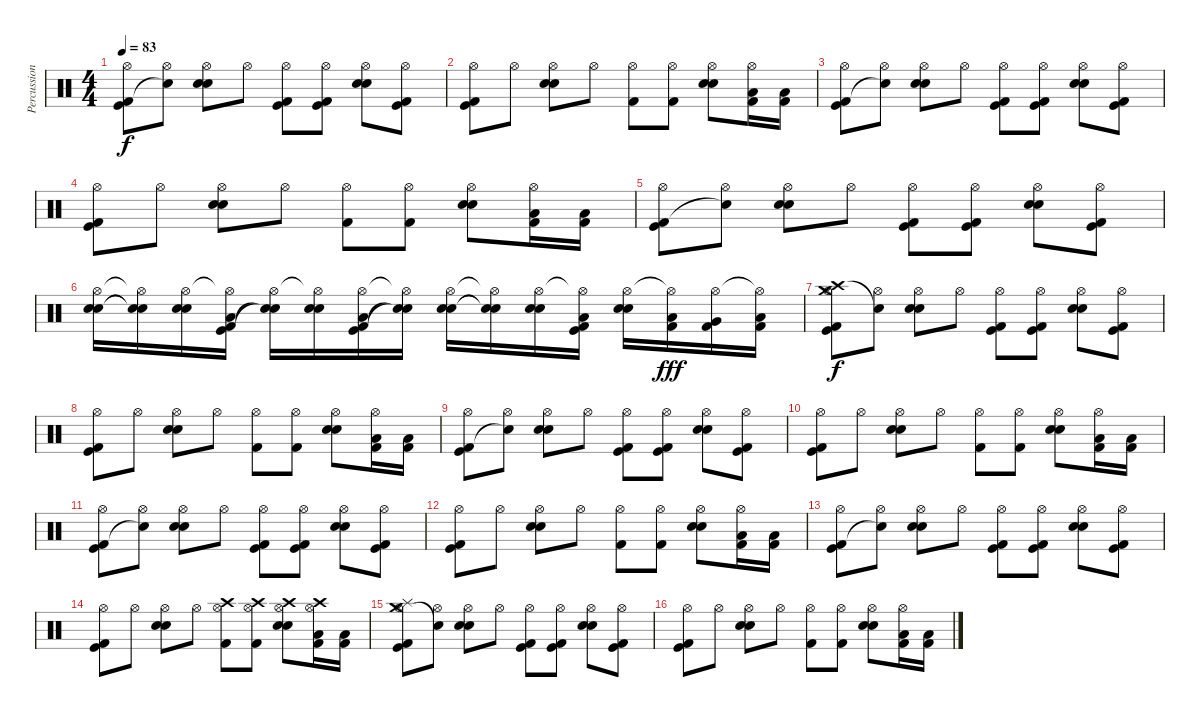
\track ("Percussions" "Percussion") {instrument percussion}
\staff {score}
\articulation defaults
\ts (4 4)
\tempo 83
\clef neutral
\ks c
("Hi-Hat (open)" "Kick (hit) 2" "Kick (hit)").8{dy f} ("Hi-Hat (open)" "Electric Snare (hit)"{t}).8 ("Hi-Hat (open)" "Electric Snare (hit)" "Snare (hit) 2").8 "Hi-Hat (open)".8 ("Hi-Hat (open)" "Kick (hit) 2" "Kick (hit)").8 ("Hi-Hat (open)" "Kick (hit) 2" "Kick (hit)").8 ("Hi-Hat (open)" "Electric Snare (hit)" "Snare (hit) 2").8 ("Hi-Hat (open)" "Kick (hit) 2" "Kick (hit)").8 |
("Hi-Hat (open)" "Kick (hit) 2" "Kick (hit)").8 "Hi-Hat (open)".8 ("Hi-Hat (open)" "Electric Snare (hit)" "Snare (hit) 2").8 "Hi-Hat (open)".8 ("Hi-Hat (open)" "Kick (hit) 2").8 ("Hi-Hat (open)" "Kick (hit) 2").8 ("Hi-Hat (open)" "Electric Snare (hit)" "Snare (hit) 2").8 ("Hi-Hat (open)" "Low Tom (hit)" "Kick (hit) 2").16 ("Low Floor Tom (hit)" "Kick (hit) 2").16 |
("Hi-Hat (open)" "Kick (hit) 2" "Kick (hit)").8 ("Hi-Hat (open)" "Electric Snare (hit)"{t}).8 ("Hi-Hat (open)" "Electric Snare (hit)" "Snare (hit) 2").8 "Hi-Hat (open)".8 ("Hi-Hat (open)" "Kick (hit) 2" "Kick (hit)").8 ("Hi-Hat (open)" "Kick (hit) 2" "Kick (hit)").8 ("Hi-Hat (open)" "Electric Snare (hit)" "Snare (hit) 2").8 ("Hi-Hat (open)" "Kick (hit) 2" "Kick (hit)").8 |
("Hi-Hat (open)" "Kick (hit) 2" "Kick (hit)").8 "Hi-Hat (open)".8 ("Hi-Hat (open)" "Electric Snare (hit)" "Snare (hit) 2").8 "Hi-Hat (open)".8 ("Hi-Hat (open)" "Kick (hit) 2").8 ("Hi-Hat (open)" "Kick (hit) 2").8 ("Hi-Hat (open)" "Electric Snare (hit)" "Snare (hit) 2").8 ("Hi-Hat (open)" "Low Tom (hit)" "Kick (hit) 2").16 ("Low Floor Tom (hit)" "Kick (hit) 2").16 |
("Hi-Hat (open)" "Kick (hit) 2" "Kick (hit)").8 ("Hi-Hat (open)" "Electric Snare (hit)"{t}).8 ("Hi-Hat (open)" "Electric Snare (hit)" "Snare (hit) 2").8 "Hi-Hat (open)".8 ("Hi-Hat (open)" "Kick (hit) 2" "Kick (hit)").8 ("Hi-Hat (open)" "Kick (hit) 2" "Kick (hit)").8 ("Hi-Hat (open)" "Electric Snare (hit)" "Snare (hit) 2").8 ("Hi-Hat (open)" "Kick (hit) 2" "Kick (hit)").8 |
("Hi-Hat (open)" "Electric Snare (hit)" "Snare (hit) 2").16 ("Hi-Hat (open)"{t} "Electric Snare (hit)"{t} "Snare (hit) 2"{t}).16 ("Hi-Hat (open)" "Electric Snare (hit)" "Snare (hit) 2").16 ("Hi-Hat (open)"{t} "Kick (hit) 2" "Kick (hit)" "Low Floor Tom (hit)").16 ("Hi-Hat (open)" "Electric Snare (hit)"{t} "Snare (hit) 2"{t}).16 ("Hi-Hat (open)"{t} "Electric Snare (hit)" "Snare (hit) 2").16 ("Hi-Hat (open)" "Kick (hit) 2" "Kick (hit)" "Low Floor Tom (hit)").16 ("Hi-Hat (open)"{t} "Electric Snare (hit)"{t} "Snare (hit) 2"{t}).16 ("Hi-Hat (open)" "Electric Snare (hit)" "Snare (hit) 2").16 ("Hi-Hat (open)"{t} "Electric Snare (hit)"{t} "Snare (hit) 2"{t}).16 ("Hi-Hat (open)" "Electric Snare (hit)" "Snare (hit) 2").16 ("Hi-Hat (open)"{t} "Kick (hit) 2" "Kick (hit)" "Low Floor Tom (hit)").16 ("Hi-Hat (open)" "Electric Snare (hit)" "Snare (hit) 2").16 ("Hi-Hat (open)"{t} "Low Tom (hit)" "Kick (hit) 2").16{dy fff} ("Hi-Hat (open)" "Very Low Tom (hit)" "Kick (hit) 2").16 ("Hi-Hat (open)"{t} "Low Floor Tom (hit)" "Kick (hit) 2").16 |
("Hi-Hat (open)" "Crash high (hit)" "Kick (hit) 2" "Kick (hit)" "Crash medium (hit)").8{dy f} ("Hi-Hat (open)" "Electric Snare (hit)"{t}).8 ("Hi-Hat (open)" "Electric Snare (hit)" "Snare (hit) 2").8 "Hi-Hat (open)".8 ("Hi-Hat (open)" "Kick (hit) 2" "Kick (hit)").8 ("Hi-Hat (open)" "Kick (hit) 2" "Kick (hit)").8 ("Hi-Hat (open)" "Electric Snare (hit)" "Snare (hit) 2").8 ("Hi-Hat (open)" "Kick (hit) 2" "Kick (hit)").8 |
("Hi-Hat (open)" "Kick (hit) 2" "Kick (hit)").8 "Hi-Hat (open)".8 ("Hi-Hat (open)" "Electric Snare (hit)" "Snare (hit) 2").8 "Hi-Hat (open)".8 ("Hi-Hat (open)" "Kick (hit) 2").8 ("Hi-Hat (open)" "Kick (hit) 2").8 ("Hi-Hat (open)" "Electric Snare (hit)" "Snare (hit) 2").8 ("Hi-Hat (open)" "Low Tom (hit)" "Kick (hit) 2").16 ("Low Floor Tom (hit)" "Kick (hit) 2").16 |
("Hi-Hat (open)" "Kick (hit) 2" "Kick (hit)").8 ("Hi-Hat (open)" "Electric Snare (hit)"{t}).8 ("Hi-Hat (open)" "Electric Snare (hit)" "Snare (hit) 2").8 "Hi-Hat (open)".8 ("Hi-Hat (open)" "Kick (hit) 2" "Kick (hit)").8 ("Hi-Hat (open)" "Kick (hit) 2" "Kick (hit)").8 ("Hi-Hat (open)" "Electric Snare (hit)" "Snare (hit) 2").8 ("Hi-Hat (open)" "Kick (hit) 2" "Kick (hit)").8 |
("Hi-Hat (open)" "Kick (hit) 2" "Kick (hit)").8 "Hi-Hat (open)".8 ("Hi-Hat (open)" "Electric Snare (hit)" "Snare (hit) 2").8 "Hi-Hat (open)".8 ("Hi-Hat (open)" "Kick (hit) 2").8 ("Hi-Hat (open)" "Kick (hit) 2").8 ("Hi-Hat (open)" "Electric Snare (hit)" "Snare (hit) 2").8 ("Hi-Hat (open)" "Low Tom (hit)" "Kick (hit) 2").16 ("Low Floor Tom (hit)" "Kick (hit) 2").16 |
("Hi-Hat (open)" "Kick (hit) 2" "Kick (hit)").8 ("Hi-Hat (open)" "Electric Snare (hit)"{t}).8 ("Hi-Hat (open)" "Electric Snare (hit)" "Snare (hit) 2").8 "Hi-Hat (open)".8 ("Hi-Hat (open)" "Kick (hit) 2" "Kick (hit)").8 ("Hi-Hat (open)" "Kick (hit) 2" "Kick (hit)").8 ("Hi-Hat (open)" "Electric Snare (hit)" "Snare (hit) 2").8 ("Hi-Hat (open)" "Kick (hit) 2" "Kick (hit)").8 |
("Hi-Hat (open)" "Kick (hit) 2" "Kick (hit)").8 "Hi-Hat (open)".8 ("Hi-Hat (open)" "Electric Snare (hit)" "Snare (hit) 2").8 "Hi-Hat (open)".8 ("Hi-Hat (open)" "Kick (hit) 2").8 ("Hi-Hat (open)" "Kick (hit) 2").8 ("Hi-Hat (open)" "Electric Snare (hit)" "Snare (hit) 2").8 ("Hi-Hat (open)" "Low Tom (hit)" "Kick (hit) 2").16 ("Low Floor Tom (hit)" "Kick (hit) 2").16 |
("Hi-Hat (open)" "Kick (hit) 2" "Kick (hit)").8 ("Hi-Hat (open)" "Electric Snare (hit)"{t}).8 ("Hi-Hat (open)" "Electric Snare (hit)" "Snare (hit) 2").8 "Hi-Hat (open)".8 ("Hi-Hat (open)" "Kick (hit) 2" "Kick (hit)").8 ("Hi-Hat (open)" "Kick (hit) 2" "Kick (hit)").8 ("Hi-Hat (open)" "Electric Snare (hit)" "Snare (hit) 2").8 ("Hi-Hat (open)" "Kick (hit) 2" "Kick (hit)").8 |
("Hi-Hat (open)" "Kick (hit) 2" "Kick (hit)").8 "Hi-Hat (open)".8 ("Hi-Hat (open)" "Electric Snare (hit)" "Snare (hit) 2").8 "Hi-Hat (open)".8 ("Hi-Hat (open)" "Crash high (hit)" "Kick (hit) 2").8 ("Hi-Hat (open)" "Crash high (hit)" "Kick (hit) 2").8 ("Hi-Hat (open)" "Crash high (hit)" "Electric Snare (hit)" "Snare (hit) 2").8 ("Hi-Hat (open)" "Crash high (hit)" "Low Tom (hit)" "Kick (hit) 2").16 ("Low Floor Tom (hit)" "Kick (hit) 2").16 |
("Hi-Hat (open)" "Crash medium (hit)" "Kick (hit) 2" "Kick (hit)" "Splash (hit)").8 ("Hi-Hat (open)" "Electric Snare (hit)"{t}).8 ("Hi-Hat (open)" "Electric Snare (hit)" "Snare (hit) 2").8 "Hi-Hat (open)".8 ("Hi-Hat (open)" "Kick (hit) 2" "Kick (hit)").8 ("Hi-Hat (open)" "Kick (hit) 2" "Kick (hit)").8 ("Hi-Hat (open)" "Electric Snare (hit)" "Snare (hit) 2").8 ("Hi-Hat (open)" "Kick (hit) 2" "Kick (hit)").8 |
("Hi-Hat (open)" "Kick (hit) 2" "Kick (hit)").8 "Hi-Hat (open)".8 ("Hi-Hat (open)" "Electric Snare (hit)" "Snare (hit) 2").8 "Hi-Hat (open)".8 ("Hi-Hat (open)" "Kick (hit) 2").8 ("Hi-Hat (open)" "Kick (hit) 2").8 ("Hi-Hat (open)" "Electric Snare (hit)" "Snare (hit) 2").8 ("Hi-Hat (open)" "Low Tom (hit)" "Kick (hit) 2").16 ("Low Floor Tom (hit)" "Kick (hit) 2").16
